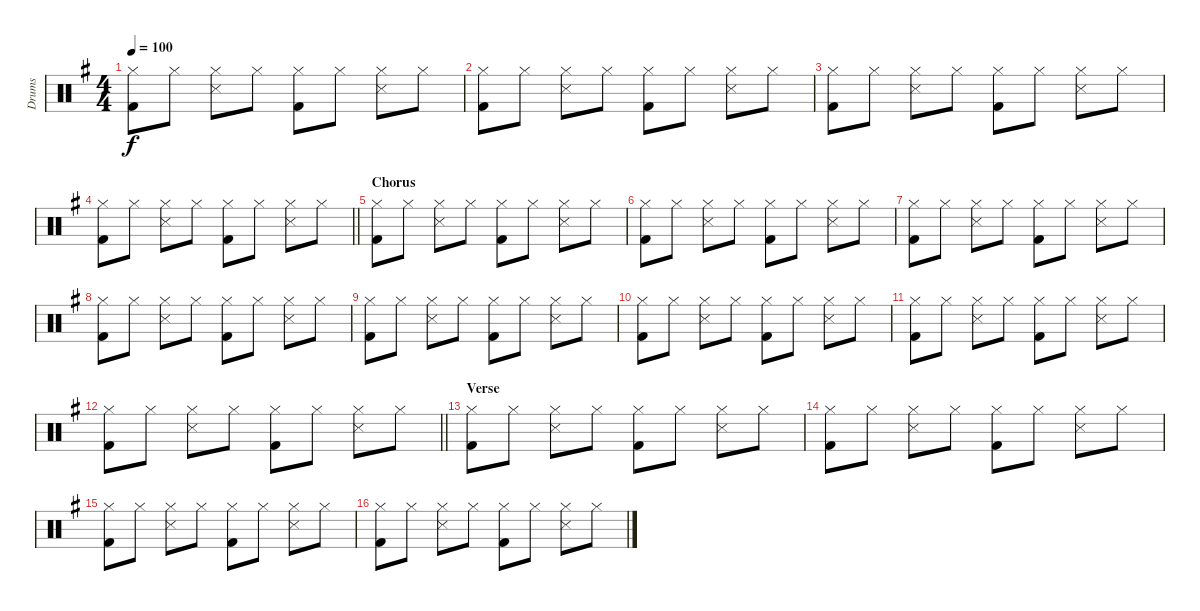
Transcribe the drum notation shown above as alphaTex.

\track ("Drums" "Drums") {instrument percussion}
\staff {score}
\articulation defaults
\ts (4 4)
\tempo 100
\clef neutral
\ks g
("Hi-Hat (closed)" "Kick (hit) 2").8{dy f} "Hi-Hat (closed)".8 ("Hi-Hat (closed)" "Snare (side stick) 3").8 "Hi-Hat (closed)".8 ("Hi-Hat (closed)" "Kick (hit) 2").8 "Hi-Hat (closed)".8 ("Hi-Hat (closed)" "Snare (side stick) 3").8 "Hi-Hat (closed)".8 |
("Hi-Hat (closed)" "Kick (hit) 2").8 "Hi-Hat (closed)".8 ("Hi-Hat (closed)" "Snare (side stick) 3").8 "Hi-Hat (closed)".8 ("Hi-Hat (closed)" "Kick (hit) 2").8 "Hi-Hat (closed)".8 ("Hi-Hat (closed)" "Snare (side stick) 3").8 "Hi-Hat (closed)".8 |
("Hi-Hat (closed)" "Kick (hit) 2").8 "Hi-Hat (closed)".8 ("Hi-Hat (closed)" "Snare (side stick) 3").8 "Hi-Hat (closed)".8 ("Hi-Hat (closed)" "Kick (hit) 2").8 "Hi-Hat (closed)".8 ("Hi-Hat (closed)" "Snare (side stick) 3").8 "Hi-Hat (closed)".8 |
\barLineRight lightlight
("Hi-Hat (closed)" "Kick (hit) 2").8 "Hi-Hat (closed)".8 ("Hi-Hat (closed)" "Snare (side stick) 3").8 "Hi-Hat (closed)".8 ("Hi-Hat (closed)" "Kick (hit) 2").8 "Hi-Hat (closed)".8 ("Hi-Hat (closed)" "Snare (side stick) 3").8 "Hi-Hat (closed)".8 |
\section ("" "Chorus")
("Hi-Hat (closed)" "Kick (hit) 2").8 "Hi-Hat (closed)".8 ("Hi-Hat (closed)" "Snare (side stick) 3").8 "Hi-Hat (closed)".8 ("Hi-Hat (closed)" "Kick (hit) 2").8 "Hi-Hat (closed)".8 ("Hi-Hat (closed)" "Snare (side stick) 3").8 "Hi-Hat (closed)".8 |
("Hi-Hat (closed)" "Kick (hit) 2").8 "Hi-Hat (closed)".8 ("Hi-Hat (closed)" "Snare (side stick) 3").8 "Hi-Hat (closed)".8 ("Hi-Hat (closed)" "Kick (hit) 2").8 "Hi-Hat (closed)".8 ("Hi-Hat (closed)" "Snare (side stick) 3").8 "Hi-Hat (closed)".8 |
("Hi-Hat (closed)" "Kick (hit) 2").8 "Hi-Hat (closed)".8 ("Hi-Hat (closed)" "Snare (side stick) 3").8 "Hi-Hat (closed)".8 ("Hi-Hat (closed)" "Kick (hit) 2").8 "Hi-Hat (closed)".8 ("Hi-Hat (closed)" "Snare (side stick) 3").8 "Hi-Hat (closed)".8 |
("Hi-Hat (closed)" "Kick (hit) 2").8 "Hi-Hat (closed)".8 ("Hi-Hat (closed)" "Snare (side stick) 3").8 "Hi-Hat (closed)".8 ("Hi-Hat (closed)" "Kick (hit) 2").8 "Hi-Hat (closed)".8 ("Hi-Hat (closed)" "Snare (side stick) 3").8 "Hi-Hat (closed)".8 |
("Hi-Hat (closed)" "Kick (hit) 2").8 "Hi-Hat (closed)".8 ("Hi-Hat (closed)" "Snare (side stick) 3").8 "Hi-Hat (closed)".8 ("Hi-Hat (closed)" "Kick (hit) 2").8 "Hi-Hat (closed)".8 ("Hi-Hat (closed)" "Snare (side stick) 3").8 "Hi-Hat (closed)".8 |
("Hi-Hat (closed)" "Kick (hit) 2").8 "Hi-Hat (closed)".8 ("Hi-Hat (closed)" "Snare (side stick) 3").8 "Hi-Hat (closed)".8 ("Hi-Hat (closed)" "Kick (hit) 2").8 "Hi-Hat (closed)".8 ("Hi-Hat (closed)" "Snare (side stick) 3").8 "Hi-Hat (closed)".8 |
("Hi-Hat (closed)" "Kick (hit) 2").8 "Hi-Hat (closed)".8 ("Hi-Hat (closed)" "Snare (side stick) 3").8 "Hi-Hat (closed)".8 ("Hi-Hat (closed)" "Kick (hit) 2").8 "Hi-Hat (closed)".8 ("Hi-Hat (closed)" "Snare (side stick) 3").8 "Hi-Hat (closed)".8 |
\barLineRight lightlight
("Hi-Hat (closed)" "Kick (hit) 2").8 "Hi-Hat (closed)".8 ("Hi-Hat (closed)" "Snare (side stick) 3").8 "Hi-Hat (closed)".8 ("Hi-Hat (closed)" "Kick (hit) 2").8 "Hi-Hat (closed)".8 ("Hi-Hat (closed)" "Snare (side stick) 3").8 "Hi-Hat (closed)".8 |
\section ("" "Verse")
("Hi-Hat (closed)" "Kick (hit) 2").8 "Hi-Hat (closed)".8 ("Hi-Hat (closed)" "Snare (side stick) 3").8 "Hi-Hat (closed)".8 ("Hi-Hat (closed)" "Kick (hit) 2").8 "Hi-Hat (closed)".8 ("Hi-Hat (closed)" "Snare (side stick) 3").8 "Hi-Hat (closed)".8 |
("Hi-Hat (closed)" "Kick (hit) 2").8 "Hi-Hat (closed)".8 ("Hi-Hat (closed)" "Snare (side stick) 3").8 "Hi-Hat (closed)".8 ("Hi-Hat (closed)" "Kick (hit) 2").8 "Hi-Hat (closed)".8 ("Hi-Hat (closed)" "Snare (side stick) 3").8 "Hi-Hat (closed)".8 |
("Hi-Hat (closed)" "Kick (hit) 2").8 "Hi-Hat (closed)".8 ("Hi-Hat (closed)" "Snare (side stick) 3").8 "Hi-Hat (closed)".8 ("Hi-Hat (closed)" "Kick (hit) 2").8 "Hi-Hat (closed)".8 ("Hi-Hat (closed)" "Snare (side stick) 3").8 "Hi-Hat (closed)".8 |
("Hi-Hat (closed)" "Kick (hit) 2").8 "Hi-Hat (closed)".8 ("Hi-Hat (closed)" "Snare (side stick) 3").8 "Hi-Hat (closed)".8 ("Hi-Hat (closed)" "Kick (hit) 2").8 "Hi-Hat (closed)".8 ("Hi-Hat (closed)" "Snare (side stick) 3").8 "Hi-Hat (closed)".8
